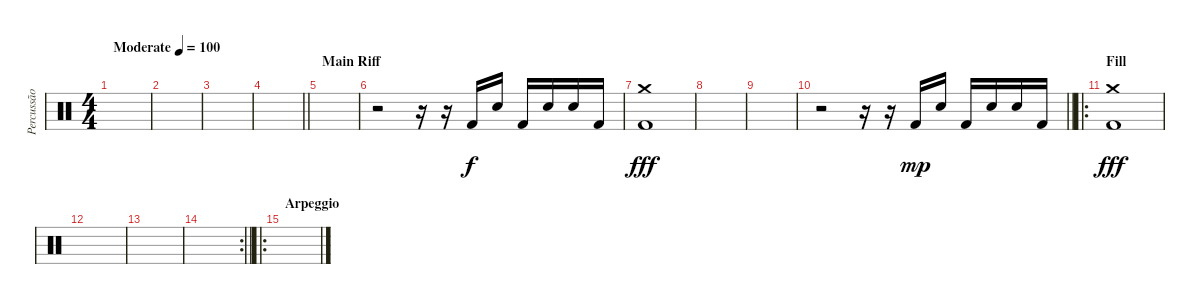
\track ("Percussão" "Percussão") {instrument percussion}
\staff {score}
\articulation defaults
\ts (4 4)
\tempo (100 "Moderate")
\clef neutral
\ks c
|
|
|
\barLineRight lightlight
|
\section ("" "Main Riff")
|
r.2 r.16 r.16 "Kick (hit) 2".16 "Snare (hit) 2".16 "Kick (hit) 2".16 "Snare (hit) 2".16 "Snare (hit) 2".16 "Kick (hit) 2".16 |
("Crash medium (hit)" "Kick (hit) 2").1{dy fff} |
|
|
\barLineRight lightlight
r.2 r.16 r.16 "Kick (hit) 2".16{dy mp} "Snare (hit) 2".16 "Kick (hit) 2".16 "Snare (hit) 2".16 "Snare (hit) 2".16 "Kick (hit) 2".16 |
\ro
\section ("" "Fill")
("Crash medium (hit)" "Kick (hit) 2").1{dy fff} |
|
|
\rc 2
\barLineRight lightlight
|
\ro
\section ("" "Arpeggio")
